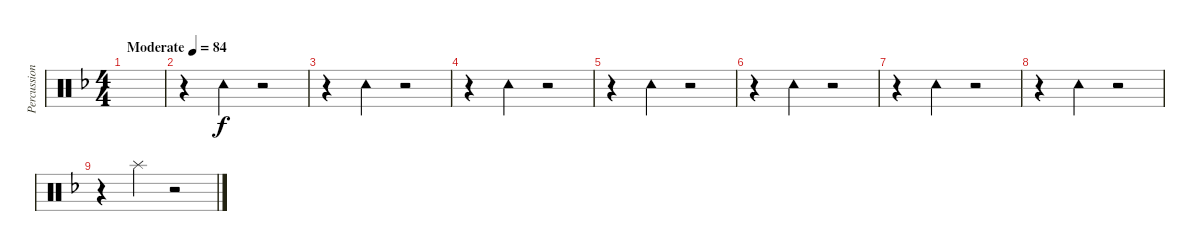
\track ("Percussion" "Percussion") {instrument percussion}
\staff {score}
\articulation defaults
\ts (4 4)
\tempo (84 "Moderate")
\clef neutral
\ks dminor
|
r.4 "Tambourine (hit)".4 r.2 |
r.4 "Tambourine (hit)".4 r.2 |
r.4 "Tambourine (hit)".4 r.2 |
r.4 "Tambourine (hit)".4 r.2 |
r.4 "Tambourine (hit)".4 r.2 |
r.4 "Tambourine (hit)".4 r.2 |
r.4 "Tambourine (hit)".4 r.2 |
r.4 "Splash (hit)".4 r.2
